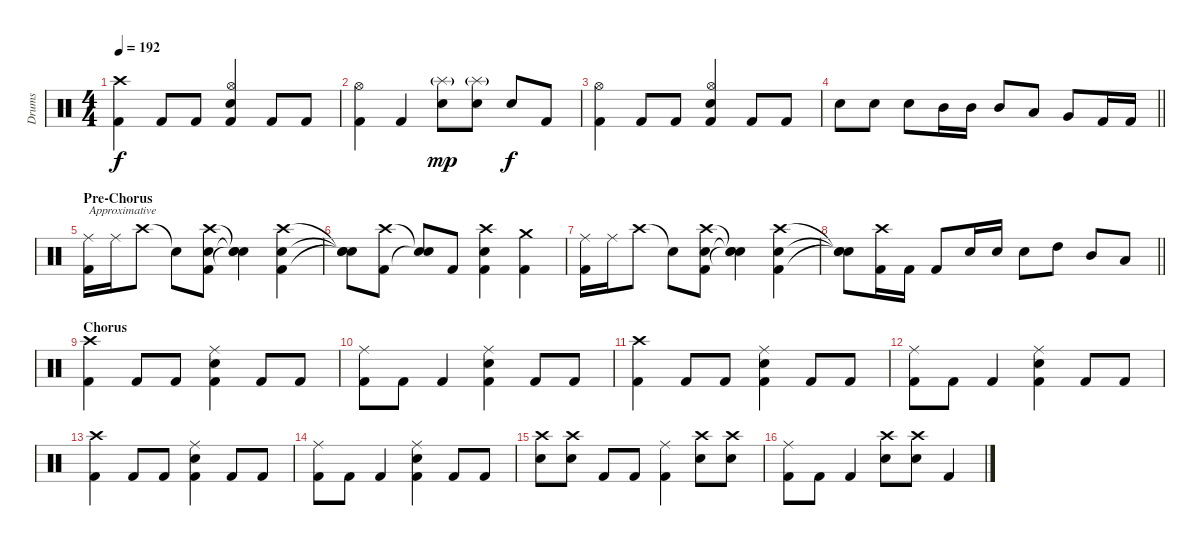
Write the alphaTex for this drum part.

\track ("Drums" "Drums") {instrument percussion}
\staff {score}
\articulation defaults
\ts (4 4)
\tempo 192
\clef neutral
\ks c
("Crash high (hit)" "Kick (hit) 2").4{dy f} "Kick (hit) 2".8 "Kick (hit) 2".8 ("Hi-Hat (open)" "Snare (hit) 2" "Kick (hit) 2").4 "Kick (hit) 2".8 "Kick (hit) 2".8 |
("Hi-Hat (open)" "Kick (hit) 2").4 "Kick (hit) 2".4 ("Splash (hit)"{g} "Snare (hit) 2").8{dy mp} ("Splash (hit)"{g} "Snare (hit) 2").8 "Snare (hit) 2".8{dy f} "Kick (hit) 2".8 |
("Hi-Hat (open)" "Kick (hit) 2").4 "Kick (hit) 2".8 "Kick (hit) 2".8 ("Hi-Hat (open)" "Snare (hit) 2" "Kick (hit) 2").4 "Kick (hit) 2".8 "Kick (hit) 2".8 |
\barLineRight lightlight "Snare (hit) 2".8 "Snare (hit) 2".8 "Snare (hit) 2".8 "Mid Tom (hit)".16 "Mid Tom (hit)".16 "Mid Tom (hit)".8 "Low Tom (hit)".8 "Very Low Tom (hit)".8 "Kick (hit) 2".16 "Kick (hit) 2".16
|
\section ("" "Pre-Chorus")
("Ride (middle)" "Kick (hit) 2").16{txt "Approximative "} "Ride (middle)".16 "Crash high (hit)".8 "Snare (hit)"{t}.8 ("Crash high (hit)" "Snare (hit) 2" "Kick (hit) 2").8 ("Snare (hit)"{t} "Snare (hit)"{t} "Snare (hit)"{t}).4 ("Crash high (hit)" "Snare (hit) 2" "Kick (hit) 2").4 |
("Snare (hit)"{t} "Snare (hit)"{t} "Snare (hit)"{t}).8 ("Crash high (hit)" "Kick (hit) 2").8 ("Snare (hit)"{t} "Snare (hit)"{t}).8 "Kick (hit) 2".8 ("Crash high (hit)" "Snare (hit) 2" "Kick (hit) 2").4 ("Crash medium (hit)" "Kick (hit) 2").4 |
("Ride (middle)" "Kick (hit) 2").16 "Ride (middle)".16 "Crash high (hit)".8 "Snare (hit)"{t}.8 ("Crash high (hit)" "Snare (hit) 2" "Kick (hit) 2").8 ("Snare (hit)"{t} "Snare (hit)"{t} "Snare (hit)"{t}).4 ("Crash high (hit)" "Snare (hit) 2" "Kick (hit) 2").4 |
\barLineRight lightlight
("Snare (hit)"{t} "Snare (hit)"{t} "Snare (hit)"{t}).8 ("Crash high (hit)" "Kick (hit) 2").16 "Kick (hit) 2".16 "Kick (hit) 2".8 "Snare (hit) 2".16 "Snare (hit) 2".16 "Snare (hit) 2".8 "High Tom (hit)".8 "Mid Tom (hit)".8 "Low Tom (hit)".8 |
\section ("" "Chorus")
("Crash high (hit)" "Kick (hit) 2").4 "Kick (hit) 2".8 "Kick (hit) 2".8 ("Ride (middle)" "Snare (hit) 2" "Kick (hit) 2").4 "Kick (hit) 2".8 "Kick (hit) 2".8 |
("Ride (middle)" "Kick (hit) 2").8 "Kick (hit) 2".8 "Kick (hit) 2".4 ("Ride (middle)" "Snare (hit) 2" "Kick (hit) 2").4 "Kick (hit) 2".8 "Kick (hit) 2".8 |
("Crash high (hit)" "Kick (hit) 2").4 "Kick (hit) 2".8 "Kick (hit) 2".8 ("Ride (middle)" "Snare (hit) 2" "Kick (hit) 2").4 "Kick (hit) 2".8 "Kick (hit) 2".8 |
("Ride (middle)" "Kick (hit) 2").8 "Kick (hit) 2".8 "Kick (hit) 2".4 ("Ride (middle)" "Snare (hit) 2" "Kick (hit) 2").4 "Kick (hit) 2".8 "Kick (hit) 2".8 |
("Crash high (hit)" "Kick (hit) 2").4 "Kick (hit) 2".8 "Kick (hit) 2".8 ("Ride (middle)" "Snare (hit) 2" "Kick (hit) 2").4 "Kick (hit) 2".8 "Kick (hit) 2".8 |
("Ride (middle)" "Kick (hit) 2").8 "Kick (hit) 2".8 "Kick (hit) 2".4 ("Ride (middle)" "Snare (hit) 2" "Kick (hit) 2").4 "Kick (hit) 2".8 "Kick (hit) 2".8 |
("Crash high (hit)" "Snare (hit) 2").8 ("Crash high (hit)" "Snare (hit) 2").8 "Kick (hit) 2".8 "Kick (hit) 2".8 ("Ride (middle)" "Kick (hit) 2").4 ("Crash high (hit)" "Snare (hit) 2").8 ("Crash high (hit)" "Snare (hit) 2").8 |
("Ride (middle)" "Kick (hit) 2").8 "Kick (hit) 2".8 "Kick (hit) 2".4 ("Crash high (hit)" "Snare (hit) 2").8 ("Crash high (hit)" "Snare (hit) 2").8 "Kick (hit) 2".4
